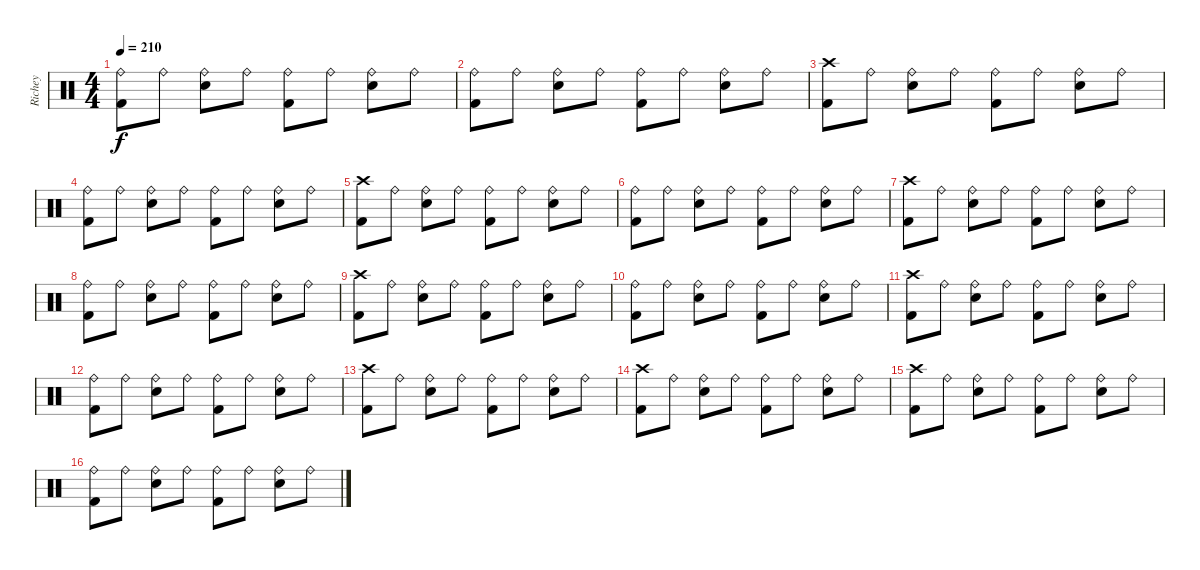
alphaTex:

\track ("Richey" "Richey") {instrument percussion}
\staff {score}
\articulation defaults
\ts (4 4)
\tempo 210
\clef neutral
\ks c
("Ride (bell)" "Kick (hit) 2").8{dy f} "Ride (bell)".8 ("Ride (bell)" "Snare (hit) 2").8 "Ride (bell)".8 ("Ride (bell)" "Kick (hit) 2").8 "Ride (bell)".8 ("Ride (bell)" "Snare (hit) 2").8 "Ride (bell)".8 |
("Ride (bell)" "Kick (hit) 2").8 "Ride (bell)".8 ("Ride (bell)" "Snare (hit) 2").8 "Ride (bell)".8 ("Ride (bell)" "Kick (hit) 2").8 "Ride (bell)".8 ("Ride (bell)" "Snare (hit) 2").8 "Ride (bell)".8 |
("Crash high (hit)" "Kick (hit) 2").8 "Ride (bell)".8 ("Ride (bell)" "Snare (hit) 2").8 "Ride (bell)".8 ("Ride (bell)" "Kick (hit) 2").8 "Ride (bell)".8 ("Ride (bell)" "Snare (hit) 2").8 "Ride (bell)".8 |
("Ride (bell)" "Kick (hit) 2").8 "Ride (bell)".8 ("Ride (bell)" "Snare (hit) 2").8 "Ride (bell)".8 ("Ride (bell)" "Kick (hit) 2").8 "Ride (bell)".8 ("Ride (bell)" "Snare (hit) 2").8 "Ride (bell)".8 |
("Crash high (hit)" "Kick (hit) 2").8 "Ride (bell)".8 ("Ride (bell)" "Snare (hit) 2").8 "Ride (bell)".8 ("Ride (bell)" "Kick (hit) 2").8 "Ride (bell)".8 ("Ride (bell)" "Snare (hit) 2").8 "Ride (bell)".8 |
("Ride (bell)" "Kick (hit) 2").8 "Ride (bell)".8 ("Ride (bell)" "Snare (hit) 2").8 "Ride (bell)".8 ("Ride (bell)" "Kick (hit) 2").8 "Ride (bell)".8 ("Ride (bell)" "Snare (hit) 2").8 "Ride (bell)".8 |
("Crash high (hit)" "Kick (hit) 2").8 "Ride (bell)".8 ("Ride (bell)" "Snare (hit) 2").8 "Ride (bell)".8 ("Ride (bell)" "Kick (hit) 2").8 "Ride (bell)".8 ("Ride (bell)" "Snare (hit) 2").8 "Ride (bell)".8 |
("Ride (bell)" "Kick (hit) 2").8 "Ride (bell)".8 ("Ride (bell)" "Snare (hit) 2").8 "Ride (bell)".8 ("Ride (bell)" "Kick (hit) 2").8 "Ride (bell)".8 ("Ride (bell)" "Snare (hit) 2").8 "Ride (bell)".8 |
("Crash high (hit)" "Kick (hit) 2").8 "Ride (bell)".8 ("Ride (bell)" "Snare (hit) 2").8 "Ride (bell)".8 ("Ride (bell)" "Kick (hit) 2").8 "Ride (bell)".8 ("Ride (bell)" "Snare (hit) 2").8 "Ride (bell)".8 |
("Ride (bell)" "Kick (hit) 2").8 "Ride (bell)".8 ("Ride (bell)" "Snare (hit) 2").8 "Ride (bell)".8 ("Ride (bell)" "Kick (hit) 2").8 "Ride (bell)".8 ("Ride (bell)" "Snare (hit) 2").8 "Ride (bell)".8 |
("Crash high (hit)" "Kick (hit) 2").8 "Ride (bell)".8 ("Ride (bell)" "Snare (hit) 2").8 "Ride (bell)".8 ("Ride (bell)" "Kick (hit) 2").8 "Ride (bell)".8 ("Ride (bell)" "Snare (hit) 2").8 "Ride (bell)".8 |
("Ride (bell)" "Kick (hit) 2").8 "Ride (bell)".8 ("Ride (bell)" "Snare (hit) 2").8 "Ride (bell)".8 ("Ride (bell)" "Kick (hit) 2").8 "Ride (bell)".8 ("Ride (bell)" "Snare (hit) 2").8 "Ride (bell)".8 |
("Crash high (hit)" "Kick (hit) 2").8 "Ride (bell)".8 ("Ride (bell)" "Snare (hit) 2").8 "Ride (bell)".8 ("Ride (bell)" "Kick (hit) 2").8 "Ride (bell)".8 ("Ride (bell)" "Snare (hit) 2").8 "Ride (bell)".8 |
("Crash high (hit)" "Kick (hit) 2").8 "Ride (bell)".8 ("Ride (bell)" "Snare (hit) 2").8 "Ride (bell)".8 ("Ride (bell)" "Kick (hit) 2").8 "Ride (bell)".8 ("Ride (bell)" "Snare (hit) 2").8 "Ride (bell)".8 |
("Crash high (hit)" "Kick (hit) 2").8 "Ride (bell)".8 ("Ride (bell)" "Snare (hit) 2").8 "Ride (bell)".8 ("Ride (bell)" "Kick (hit) 2").8 "Ride (bell)".8 ("Ride (bell)" "Snare (hit) 2").8 "Ride (bell)".8 |
("Ride (bell)" "Kick (hit) 2").8 "Ride (bell)".8 ("Ride (bell)" "Snare (hit) 2").8 "Ride (bell)".8 ("Ride (bell)" "Kick (hit) 2").8 "Ride (bell)".8 ("Ride (bell)" "Snare (hit) 2").8 "Ride (bell)".8
